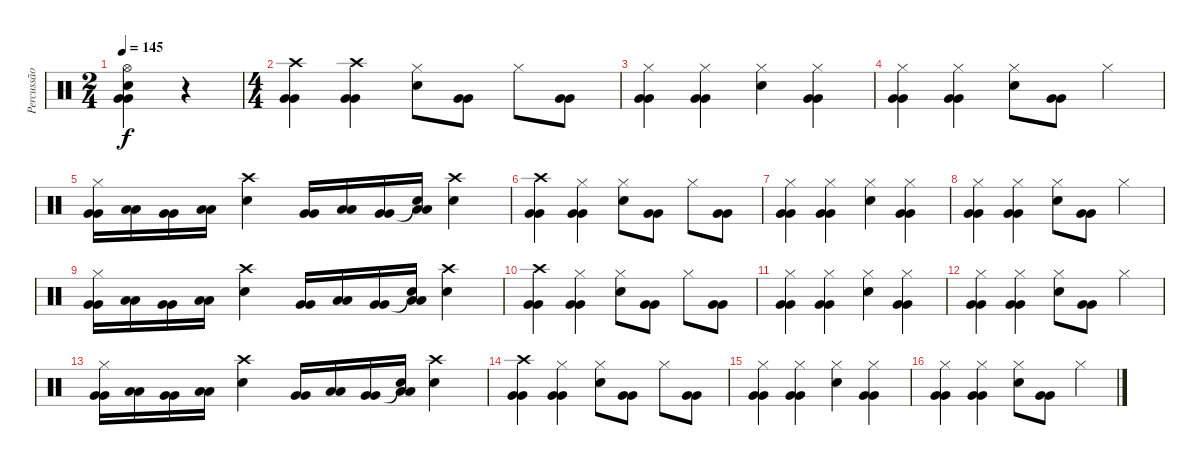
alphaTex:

\track ("Percussão" "Percussão") {instrument percussion}
\staff {score}
\articulation defaults
\ts (2 4)
\tempo 145
\clef neutral
\ks c
("Hi-Hat (open)" "Electric Snare (hit)" "Very Low Tom (hit)" "Very Low Tom (hit)").4{dy f} r.4 |
\ts (4 4)
("Crash high (hit)" "Very Low Tom (hit)" "Very Low Tom (hit)").4 ("Crash high (hit)" "Very Low Tom (hit)" "Very Low Tom (hit)").4 ("Hi-Hat (closed)" "Electric Snare (hit)").8 ("Very Low Tom (hit)" "Very Low Tom (hit)").8 "Hi-Hat (closed)".8 ("Very Low Tom (hit)" "Very Low Tom (hit)").8 |
("Hi-Hat (closed)" "Very Low Tom (hit)" "Very Low Tom (hit)").4 ("Hi-Hat (closed)" "Very Low Tom (hit)" "Very Low Tom (hit)").4 ("Hi-Hat (closed)" "Electric Snare (hit)").4 ("Hi-Hat (closed)" "Very Low Tom (hit)" "Very Low Tom (hit)").4 |
("Hi-Hat (closed)" "Very Low Tom (hit)" "Very Low Tom (hit)").4 ("Hi-Hat (closed)" "Very Low Tom (hit)" "Very Low Tom (hit)").4 ("Hi-Hat (closed)" "Electric Snare (hit)").8 ("Very Low Tom (hit)" "Very Low Tom (hit)").8 "Hi-Hat (closed)".4 |
("Hi-Hat (closed)" "Very Low Tom (hit)" "Very Low Tom (hit)").16 ("Low Floor Tom (hit)" "Low Floor Tom (hit)").16 ("Very Low Tom (hit)" "Very Low Tom (hit)").16 ("Low Floor Tom (hit)" "Low Floor Tom (hit)").16 ("Crash high (hit)" "Electric Snare (hit)").4 ("Very Low Tom (hit)" "Very Low Tom (hit)").16 ("Low Floor Tom (hit)" "Low Floor Tom (hit)").16 ("Very Low Tom (hit)" "Very Low Tom (hit)").16 ("Snare (hit)"{t} "Low Floor Tom (hit)" "Low Floor Tom (hit)").16 ("Crash high (hit)" "Electric Snare (hit)").4 |
("Crash high (hit)" "Very Low Tom (hit)" "Very Low Tom (hit)").4 ("Hi-Hat (closed)" "Very Low Tom (hit)" "Very Low Tom (hit)").4 ("Hi-Hat (closed)" "Electric Snare (hit)").8 ("Very Low Tom (hit)" "Very Low Tom (hit)").8 "Hi-Hat (closed)".8 ("Very Low Tom (hit)" "Very Low Tom (hit)").8 |
("Hi-Hat (closed)" "Very Low Tom (hit)" "Very Low Tom (hit)").4 ("Hi-Hat (closed)" "Very Low Tom (hit)" "Very Low Tom (hit)").4 ("Hi-Hat (closed)" "Electric Snare (hit)").4 ("Hi-Hat (closed)" "Very Low Tom (hit)" "Very Low Tom (hit)").4 |
("Hi-Hat (closed)" "Very Low Tom (hit)" "Very Low Tom (hit)").4 ("Hi-Hat (closed)" "Very Low Tom (hit)" "Very Low Tom (hit)").4 ("Hi-Hat (closed)" "Electric Snare (hit)").8 ("Very Low Tom (hit)" "Very Low Tom (hit)").8 "Hi-Hat (closed)".4 |
("Hi-Hat (closed)" "Very Low Tom (hit)" "Very Low Tom (hit)").16 ("Low Floor Tom (hit)" "Low Floor Tom (hit)").16 ("Very Low Tom (hit)" "Very Low Tom (hit)").16 ("Low Floor Tom (hit)" "Low Floor Tom (hit)").16 ("Crash high (hit)" "Electric Snare (hit)").4 ("Very Low Tom (hit)" "Very Low Tom (hit)").16 ("Low Floor Tom (hit)" "Low Floor Tom (hit)").16 ("Very Low Tom (hit)" "Very Low Tom (hit)").16 ("Snare (hit)"{t} "Low Floor Tom (hit)" "Low Floor Tom (hit)").16 ("Crash high (hit)" "Electric Snare (hit)").4 |
("Crash high (hit)" "Very Low Tom (hit)" "Very Low Tom (hit)").4 ("Hi-Hat (closed)" "Very Low Tom (hit)" "Very Low Tom (hit)").4 ("Hi-Hat (closed)" "Electric Snare (hit)").8 ("Very Low Tom (hit)" "Very Low Tom (hit)").8 "Hi-Hat (closed)".8 ("Very Low Tom (hit)" "Very Low Tom (hit)").8 |
("Hi-Hat (closed)" "Very Low Tom (hit)" "Very Low Tom (hit)").4 ("Hi-Hat (closed)" "Very Low Tom (hit)" "Very Low Tom (hit)").4 ("Hi-Hat (closed)" "Electric Snare (hit)").4 ("Hi-Hat (closed)" "Very Low Tom (hit)" "Very Low Tom (hit)").4 |
("Hi-Hat (closed)" "Very Low Tom (hit)" "Very Low Tom (hit)").4 ("Hi-Hat (closed)" "Very Low Tom (hit)" "Very Low Tom (hit)").4 ("Hi-Hat (closed)" "Electric Snare (hit)").8 ("Very Low Tom (hit)" "Very Low Tom (hit)").8 "Hi-Hat (closed)".4 |
("Hi-Hat (closed)" "Very Low Tom (hit)" "Very Low Tom (hit)").16 ("Low Floor Tom (hit)" "Low Floor Tom (hit)").16 ("Very Low Tom (hit)" "Very Low Tom (hit)").16 ("Low Floor Tom (hit)" "Low Floor Tom (hit)").16 ("Crash high (hit)" "Electric Snare (hit)").4 ("Very Low Tom (hit)" "Very Low Tom (hit)").16 ("Low Floor Tom (hit)" "Low Floor Tom (hit)").16 ("Very Low Tom (hit)" "Very Low Tom (hit)").16 ("Snare (hit)"{t} "Low Floor Tom (hit)" "Low Floor Tom (hit)").16 ("Crash high (hit)" "Electric Snare (hit)").4 |
("Crash high (hit)" "Very Low Tom (hit)" "Very Low Tom (hit)").4 ("Hi-Hat (closed)" "Very Low Tom (hit)" "Very Low Tom (hit)").4 ("Hi-Hat (closed)" "Electric Snare (hit)").8 ("Very Low Tom (hit)" "Very Low Tom (hit)").8 "Hi-Hat (closed)".8 ("Very Low Tom (hit)" "Very Low Tom (hit)").8 |
("Hi-Hat (closed)" "Very Low Tom (hit)" "Very Low Tom (hit)").4 ("Hi-Hat (closed)" "Very Low Tom (hit)" "Very Low Tom (hit)").4 ("Hi-Hat (closed)" "Electric Snare (hit)").4 ("Hi-Hat (closed)" "Very Low Tom (hit)" "Very Low Tom (hit)").4 |
("Hi-Hat (closed)" "Very Low Tom (hit)" "Very Low Tom (hit)").4 ("Hi-Hat (closed)" "Very Low Tom (hit)" "Very Low Tom (hit)").4 ("Hi-Hat (closed)" "Electric Snare (hit)").8 ("Very Low Tom (hit)" "Very Low Tom (hit)").8 "Hi-Hat (closed)".4
